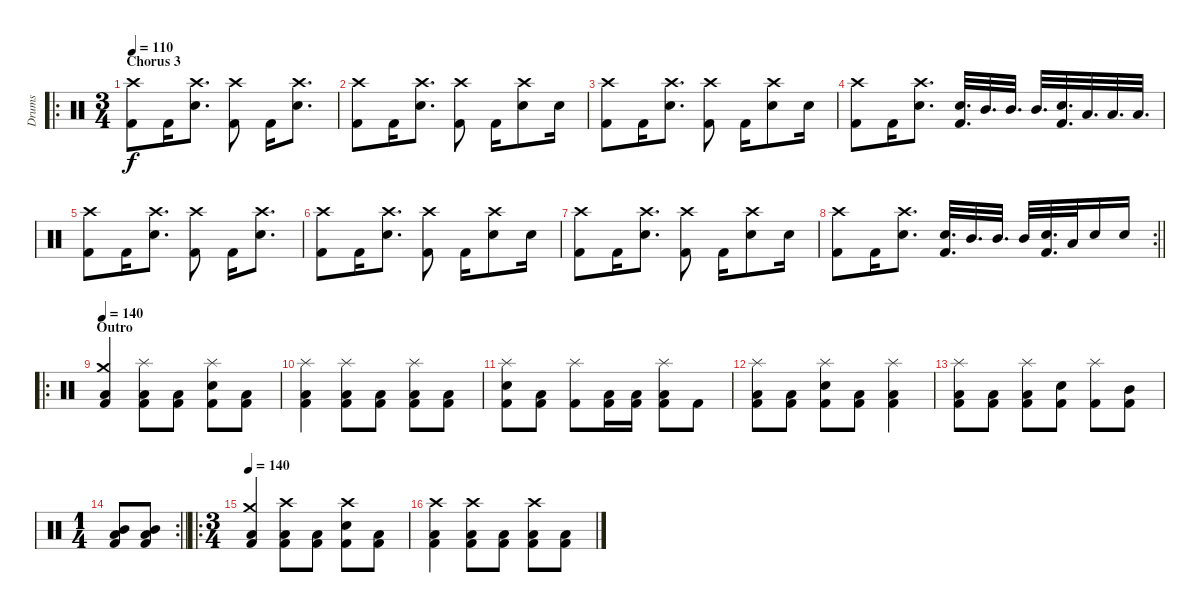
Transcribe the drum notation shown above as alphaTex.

\track ("Drums" "Drums") {instrument percussion}
\staff {score}
\articulation defaults
\ro
\ts (3 4)
\section ("" "Chorus 3")
\tempo 110
\clef neutral
\ks c
("Crash high (hit)" "Kick (hit) 2").8{dy f} "Kick (hit) 2".16 ("Crash high (hit)" "Electric Snare (hit)").8{d} ("Crash high (hit)" "Kick (hit) 2").8 "Kick (hit) 2".16 ("Crash high (hit)" "Electric Snare (hit)").8{d} |
("Crash high (hit)" "Kick (hit) 2").8 "Kick (hit) 2".16 ("Crash high (hit)" "Electric Snare (hit)").8{d} ("Crash high (hit)" "Kick (hit) 2").8 "Kick (hit) 2".16 ("Crash high (hit)" "Electric Snare (hit)").8 "Electric Snare (hit)".16 |
("Crash high (hit)" "Kick (hit) 2").8 "Kick (hit) 2".16 ("Crash high (hit)" "Electric Snare (hit)").8{d} ("Crash high (hit)" "Kick (hit) 2").8 "Kick (hit) 2".16 ("Crash high (hit)" "Electric Snare (hit)").8 "Electric Snare (hit)".16 |
("Crash high (hit)" "Kick (hit) 2").8 "Kick (hit) 2".16 ("Crash high (hit)" "Electric Snare (hit)").8{d} ("Electric Snare (hit)" "Kick (hit) 2").32{d} "Mid Tom (hit)".32{d} "Mid Tom (hit)".32{d} "Mid Tom (hit)".32{d} ("Electric Snare (hit)" "Kick (hit) 2").32{d} "Low Tom (hit)".32{d} "Low Tom (hit)".32{d} "Low Tom (hit)".32{d} |
("Crash high (hit)" "Kick (hit) 2").8 "Kick (hit) 2".16 ("Crash high (hit)" "Electric Snare (hit)").8{d} ("Crash high (hit)" "Kick (hit) 2").8 "Kick (hit) 2".16 ("Crash high (hit)" "Electric Snare (hit)").8{d} |
("Crash high (hit)" "Kick (hit) 2").8 "Kick (hit) 2".16 ("Crash high (hit)" "Electric Snare (hit)").8{d} ("Crash high (hit)" "Kick (hit) 2").8 "Kick (hit) 2".16 ("Crash high (hit)" "Electric Snare (hit)").8 "Electric Snare (hit)".16 |
("Crash high (hit)" "Kick (hit) 2").8 "Kick (hit) 2".16 ("Crash high (hit)" "Electric Snare (hit)").8{d} ("Crash high (hit)" "Kick (hit) 2").8 "Kick (hit) 2".16 ("Crash high (hit)" "Electric Snare (hit)").8 "Electric Snare (hit)".16 |
\rc 2
\barLineRight lightlight
("Crash high (hit)" "Kick (hit) 2").8 "Kick (hit) 2".16 ("Crash high (hit)" "Electric Snare (hit)").8{d} ("Electric Snare (hit)" "Kick (hit) 2").32{d} "Mid Tom (hit)".32{d} "Mid Tom (hit)".32{d} "Mid Tom (hit)".32 ("Electric Snare (hit)" "Kick (hit) 2").32{d} "Low Tom (hit)".32 "Electric Snare (hit)".16 "Electric Snare (hit)".16 |
\ro
\section ("" "Outro")
\tempo 140
("Crash medium (hit)" "Low Floor Tom (hit)" "Kick (hit) 2").4 ("Splash (hit)" "Low Floor Tom (hit)" "Kick (hit) 2").8 ("Low Floor Tom (hit)" "Kick (hit) 2").8 ("Splash (hit)" "Electric Snare (hit)" "Kick (hit) 2").8 ("Low Floor Tom (hit)" "Kick (hit) 2").8 |
("Splash (hit)" "Low Floor Tom (hit)" "Kick (hit) 2").4 ("Splash (hit)" "Low Floor Tom (hit)" "Kick (hit) 2").8 ("Low Floor Tom (hit)" "Kick (hit) 2").8 ("Splash (hit)" "Low Floor Tom (hit)" "Kick (hit) 2").8 ("Low Tom (hit)" "Kick (hit) 2").8 |
("Splash (hit)" "Electric Snare (hit)" "Kick (hit) 2").8 ("Low Tom (hit)" "Kick (hit) 2").8 ("Splash (hit)" "Kick (hit) 2").8 ("Low Floor Tom (hit)" "Kick (hit) 2").16 ("Low Floor Tom (hit)" "Kick (hit) 2").16 ("Splash (hit)" "Low Floor Tom (hit)" "Kick (hit) 2").8 "Kick (hit) 2".8 |
("Splash (hit)" "Low Floor Tom (hit)" "Kick (hit) 2").8 ("Low Floor Tom (hit)" "Kick (hit) 2").8 ("Splash (hit)" "Electric Snare (hit)" "Kick (hit) 2").8 ("Low Floor Tom (hit)" "Kick (hit) 2").8 ("Splash (hit)" "Low Floor Tom (hit)" "Kick (hit) 2").4 |
("Splash (hit)" "Low Floor Tom (hit)" "Kick (hit) 2").8 ("Low Floor Tom (hit)" "Kick (hit) 2").8 ("Splash (hit)" "Low Floor Tom (hit)" "Kick (hit) 2").8 ("Electric Snare (hit)" "Kick (hit) 2").8 ("Splash (hit)" "Kick (hit) 2").8 ("Mid Tom (hit)" "Kick (hit) 2").8 |
\rc 2
\ts (1 4)
\barLineRight lightlight
("Mid Tom (hit)" "Low Tom (hit)" "Kick (hit) 2").8 ("Mid Tom (hit)" "Low Tom (hit)" "Kick (hit) 2").8 |
\ro
\ts (3 4)
\tempo 140
("Crash medium (hit)" "Low Floor Tom (hit)" "Kick (hit) 2").4 ("Crash high (hit)" "Low Floor Tom (hit)" "Kick (hit) 2").8 ("Low Floor Tom (hit)" "Kick (hit) 2").8 ("Crash high (hit)" "Electric Snare (hit)" "Kick (hit) 2").8 ("Low Floor Tom (hit)" "Kick (hit) 2").8 |
("Crash high (hit)" "Low Floor Tom (hit)" "Kick (hit) 2").4 ("Crash high (hit)" "Low Floor Tom (hit)" "Kick (hit) 2").8 ("Low Floor Tom (hit)" "Kick (hit) 2").8 ("Crash high (hit)" "Low Floor Tom (hit)" "Kick (hit) 2").8 ("Low Tom (hit)" "Kick (hit) 2").8
